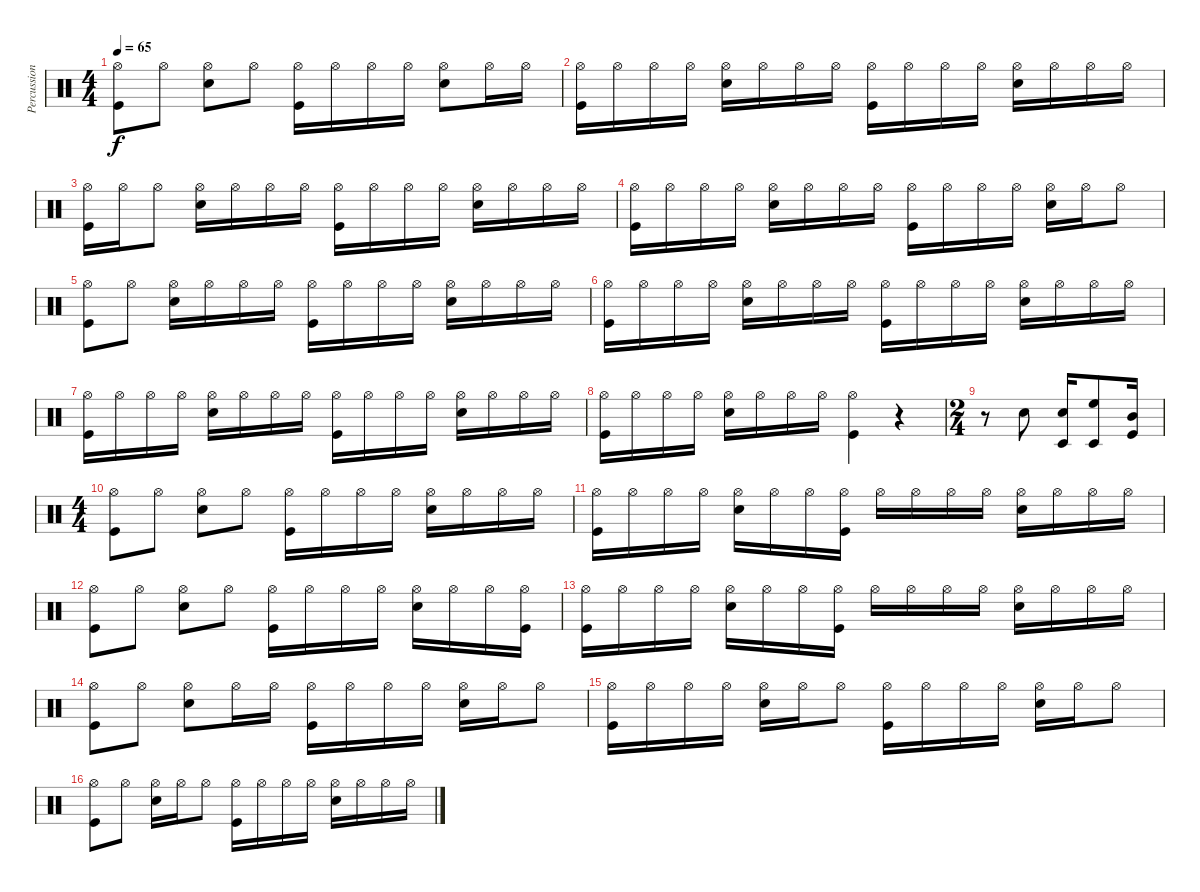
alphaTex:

\track ("Percussions" "Percussion") {instrument percussion}
\staff {score}
\articulation defaults
\ts (4 4)
\tempo 65
\clef neutral
\ks c
("Hi-Hat (open)" "Kick (hit)").8{dy f} "Hi-Hat (open)".8 ("Hi-Hat (open)" "Snare (hit) 2").8 "Hi-Hat (open)".8 ("Hi-Hat (open)" "Kick (hit)").16 "Hi-Hat (open)".16 "Hi-Hat (open)".16 "Hi-Hat (open)".16 ("Hi-Hat (open)" "Snare (hit) 2").8 "Hi-Hat (open)".16 "Hi-Hat (open)".16 |
("Hi-Hat (open)" "Kick (hit)").16 "Hi-Hat (open)".16 "Hi-Hat (open)".16 "Hi-Hat (open)".16 ("Hi-Hat (open)" "Snare (hit) 2").16 "Hi-Hat (open)".16 "Hi-Hat (open)".16 "Hi-Hat (open)".16 ("Hi-Hat (open)" "Kick (hit)").16 "Hi-Hat (open)".16 "Hi-Hat (open)".16 "Hi-Hat (open)".16 ("Hi-Hat (open)" "Snare (hit) 2").16 "Hi-Hat (open)".16 "Hi-Hat (open)".16 "Hi-Hat (open)".16 |
("Hi-Hat (open)" "Kick (hit)").16 "Hi-Hat (open)".16 "Hi-Hat (open)".8 ("Hi-Hat (open)" "Snare (hit) 2").16 "Hi-Hat (open)".16 "Hi-Hat (open)".16 "Hi-Hat (open)".16 ("Hi-Hat (open)" "Kick (hit)").16 "Hi-Hat (open)".16 "Hi-Hat (open)".16 "Hi-Hat (open)".16 ("Hi-Hat (open)" "Snare (hit) 2").16 "Hi-Hat (open)".16 "Hi-Hat (open)".16 "Hi-Hat (open)".16 |
("Hi-Hat (open)" "Kick (hit)").16 "Hi-Hat (open)".16 "Hi-Hat (open)".16 "Hi-Hat (open)".16 ("Hi-Hat (open)" "Snare (hit) 2").16 "Hi-Hat (open)".16 "Hi-Hat (open)".16 "Hi-Hat (open)".16 ("Hi-Hat (open)" "Kick (hit)").16 "Hi-Hat (open)".16 "Hi-Hat (open)".16 "Hi-Hat (open)".16 ("Hi-Hat (open)" "Snare (hit) 2").16 "Hi-Hat (open)".16 "Hi-Hat (open)".8 |
("Hi-Hat (open)" "Kick (hit)").8 "Hi-Hat (open)".8 ("Hi-Hat (open)" "Snare (hit) 2").16 "Hi-Hat (open)".16 "Hi-Hat (open)".16 "Hi-Hat (open)".16 ("Hi-Hat (open)" "Kick (hit)").16 "Hi-Hat (open)".16 "Hi-Hat (open)".16 "Hi-Hat (open)".16 ("Hi-Hat (open)" "Snare (hit) 2").16 "Hi-Hat (open)".16 "Hi-Hat (open)".16 "Hi-Hat (open)".16 |
("Hi-Hat (open)" "Kick (hit)").16 "Hi-Hat (open)".16 "Hi-Hat (open)".16 "Hi-Hat (open)".16 ("Hi-Hat (open)" "Snare (hit) 2").16 "Hi-Hat (open)".16 "Hi-Hat (open)".16 "Hi-Hat (open)".16 ("Hi-Hat (open)" "Kick (hit)").16 "Hi-Hat (open)".16 "Hi-Hat (open)".16 "Hi-Hat (open)".16 ("Hi-Hat (open)" "Snare (hit) 2").16 "Hi-Hat (open)".16 "Hi-Hat (open)".16 "Hi-Hat (open)".16 |
("Hi-Hat (open)" "Kick (hit)").16 "Hi-Hat (open)".16 "Hi-Hat (open)".16 "Hi-Hat (open)".16 ("Hi-Hat (open)" "Snare (hit) 2").16 "Hi-Hat (open)".16 "Hi-Hat (open)".16 "Hi-Hat (open)".16 ("Hi-Hat (open)" "Kick (hit)").16 "Hi-Hat (open)".16 "Hi-Hat (open)".16 "Hi-Hat (open)".16 ("Hi-Hat (open)" "Snare (hit) 2").16 "Hi-Hat (open)".16 "Hi-Hat (open)".16 "Hi-Hat (open)".16 |
("Hi-Hat (open)" "Kick (hit)").16 "Hi-Hat (open)".16 "Hi-Hat (open)".16 "Hi-Hat (open)".16 ("Hi-Hat (open)" "Snare (hit) 2").16 "Hi-Hat (open)".16 "Hi-Hat (open)".16 "Hi-Hat (open)".16 ("Hi-Hat (open)" "Kick (hit)").4 r.4 |
\ts (2 4)
r.8 "Snare (hit) 2".8 ("Timbale low (hit)" "Snare (hit) 2").16 ("Timbale low (hit)" "High Floor Tom (hit)").8 ("Mid Tom (hit)" "Kick (hit)").16 |
\ts (4 4)
("Hi-Hat (open)" "Kick (hit)").8 "Hi-Hat (open)".8 ("Hi-Hat (open)" "Snare (hit) 2").8 "Hi-Hat (open)".8 ("Hi-Hat (open)" "Kick (hit)").16 "Hi-Hat (open)".16 "Hi-Hat (open)".16 "Hi-Hat (open)".16 ("Hi-Hat (open)" "Snare (hit) 2").16 "Hi-Hat (open)".16 "Hi-Hat (open)".16 "Hi-Hat (open)".16 |
("Hi-Hat (open)" "Kick (hit)").16 "Hi-Hat (open)".16 "Hi-Hat (open)".16 "Hi-Hat (open)".16 ("Hi-Hat (open)" "Snare (hit) 2").16 "Hi-Hat (open)".16 "Hi-Hat (open)".16 ("Hi-Hat (open)" "Kick (hit)").16 "Hi-Hat (open)".16 "Hi-Hat (open)".16 "Hi-Hat (open)".16 "Hi-Hat (open)".16 ("Hi-Hat (open)" "Snare (hit) 2").16 "Hi-Hat (open)".16 "Hi-Hat (open)".16 "Hi-Hat (open)".16 |
("Hi-Hat (open)" "Kick (hit)").8 "Hi-Hat (open)".8 ("Hi-Hat (open)" "Snare (hit) 2").8 "Hi-Hat (open)".8 ("Hi-Hat (open)" "Kick (hit)").16 "Hi-Hat (open)".16 "Hi-Hat (open)".16 "Hi-Hat (open)".16 ("Hi-Hat (open)" "Snare (hit) 2").16 "Hi-Hat (open)".16 "Hi-Hat (open)".16 ("Hi-Hat (open)" "Kick (hit)").16 |
("Hi-Hat (open)" "Kick (hit)").16 "Hi-Hat (open)".16 "Hi-Hat (open)".16 "Hi-Hat (open)".16 ("Hi-Hat (open)" "Snare (hit) 2").16 "Hi-Hat (open)".16 "Hi-Hat (open)".16 ("Hi-Hat (open)" "Kick (hit)").16 "Hi-Hat (open)".16 "Hi-Hat (open)".16 "Hi-Hat (open)".16 "Hi-Hat (open)".16 ("Hi-Hat (open)" "Snare (hit) 2").16 "Hi-Hat (open)".16 "Hi-Hat (open)".16 "Hi-Hat (open)".16 |
("Hi-Hat (open)" "Kick (hit)").8 "Hi-Hat (open)".8 ("Hi-Hat (open)" "Snare (hit) 2").8 "Hi-Hat (open)".16 "Hi-Hat (open)".16 ("Hi-Hat (open)" "Kick (hit)").16 "Hi-Hat (open)".16 "Hi-Hat (open)".16 "Hi-Hat (open)".16 ("Hi-Hat (open)" "Snare (hit) 2").16 "Hi-Hat (open)".16 "Hi-Hat (open)".8 |
("Hi-Hat (open)" "Kick (hit)").16 "Hi-Hat (open)".16 "Hi-Hat (open)".16 "Hi-Hat (open)".16 ("Hi-Hat (open)" "Snare (hit) 2").16 "Hi-Hat (open)".16 "Hi-Hat (open)".8 ("Hi-Hat (open)" "Kick (hit)").16 "Hi-Hat (open)".16 "Hi-Hat (open)".16 "Hi-Hat (open)".16 ("Hi-Hat (open)" "Snare (hit) 2").16 "Hi-Hat (open)".16 "Hi-Hat (open)".8 |
("Hi-Hat (open)" "Kick (hit)").8 "Hi-Hat (open)".8 ("Hi-Hat (open)" "Snare (hit) 2").16 "Hi-Hat (open)".16 "Hi-Hat (open)".8 ("Hi-Hat (open)" "Kick (hit)").16 "Hi-Hat (open)".16 "Hi-Hat (open)".16 "Hi-Hat (open)".16 ("Hi-Hat (open)" "Snare (hit) 2").16 "Hi-Hat (open)".16 "Hi-Hat (open)".16 "Hi-Hat (open)".16
